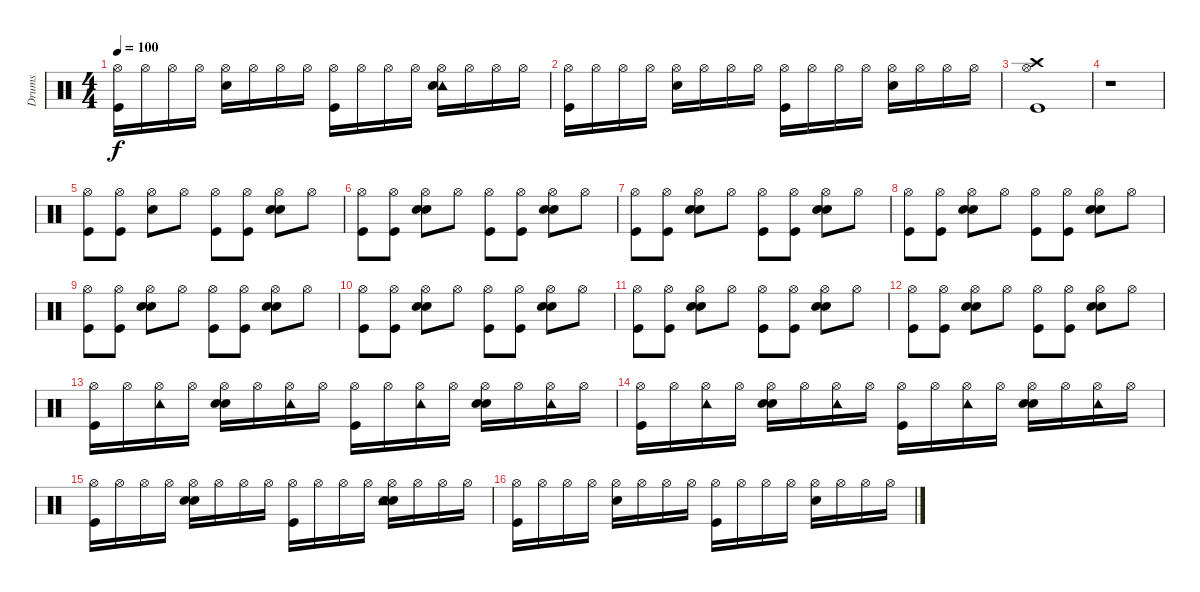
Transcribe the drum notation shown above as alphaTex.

\track ("Drums" "Drums") {instrument percussion}
\staff {score}
\articulation defaults
\ts (4 4)
\tempo 100
\clef neutral
\ks c
("Hi-Hat (open)" "Kick (hit)").16{dy f} "Hi-Hat (open)".16 "Hi-Hat (open)".16 "Hi-Hat (open)".16 ("Hi-Hat (open)" "Snare (hit) 2").16 "Hi-Hat (open)".16 "Hi-Hat (open)".16 "Hi-Hat (open)".16 ("Hi-Hat (open)" "Kick (hit)").16 "Hi-Hat (open)".16 "Hi-Hat (open)".16 "Hi-Hat (open)".16 ("Hi-Hat (open)" "Tambourine (hit)" "Snare (hit) 2").16 "Hi-Hat (open)".16 "Hi-Hat (open)".16 "Hi-Hat (open)".16 |
("Hi-Hat (open)" "Kick (hit)").16 "Hi-Hat (open)".16 "Hi-Hat (open)".16 "Hi-Hat (open)".16 ("Hi-Hat (open)" "Snare (hit) 2").16 "Hi-Hat (open)".16 "Hi-Hat (open)".16 "Hi-Hat (open)".16 ("Hi-Hat (open)" "Kick (hit)").16 "Hi-Hat (open)".16 "Hi-Hat (open)".16 "Hi-Hat (open)".16 ("Hi-Hat (open)" "Snare (hit) 2").16 "Hi-Hat (open)".16 "Hi-Hat (open)".16 "Hi-Hat (open)".16 |
("Hi-Hat (open)" "Crash high (hit)" "Kick (hit)").1 |
r.1 |
("Hi-Hat (open)" "Kick (hit)").8 ("Hi-Hat (open)" "Kick (hit)").8 ("Hi-Hat (open)" "Snare (hit) 2").8 "Hi-Hat (open)".8 ("Hi-Hat (open)" "Kick (hit)").8 ("Hi-Hat (open)" "Kick (hit)").8 ("Hi-Hat (open)" "Hand Clap (hit)" "Snare (hit) 2").8 "Hi-Hat (open)".8 |
("Hi-Hat (open)" "Kick (hit)").8 ("Hi-Hat (open)" "Kick (hit)").8 ("Hi-Hat (open)" "Hand Clap (hit)" "Snare (hit) 2").8 "Hi-Hat (open)".8 ("Hi-Hat (open)" "Kick (hit)").8 ("Hi-Hat (open)" "Kick (hit)").8 ("Hi-Hat (open)" "Hand Clap (hit)" "Snare (hit) 2").8 "Hi-Hat (open)".8 |
("Hi-Hat (open)" "Kick (hit)").8 ("Hi-Hat (open)" "Kick (hit)").8 ("Hi-Hat (open)" "Hand Clap (hit)" "Snare (hit) 2").8 "Hi-Hat (open)".8 ("Hi-Hat (open)" "Kick (hit)").8 ("Hi-Hat (open)" "Kick (hit)").8 ("Hi-Hat (open)" "Hand Clap (hit)" "Snare (hit) 2").8 "Hi-Hat (open)".8 |
("Hi-Hat (open)" "Kick (hit)").8 ("Hi-Hat (open)" "Kick (hit)").8 ("Hi-Hat (open)" "Hand Clap (hit)" "Snare (hit) 2").8 "Hi-Hat (open)".8 ("Hi-Hat (open)" "Kick (hit)").8 ("Hi-Hat (open)" "Kick (hit)").8 ("Hi-Hat (open)" "Hand Clap (hit)" "Snare (hit) 2").8 "Hi-Hat (open)".8 |
("Hi-Hat (open)" "Kick (hit)").8 ("Hi-Hat (open)" "Kick (hit)").8 ("Hi-Hat (open)" "Hand Clap (hit)" "Snare (hit) 2").8 "Hi-Hat (open)".8 ("Hi-Hat (open)" "Kick (hit)").8 ("Hi-Hat (open)" "Kick (hit)").8 ("Hi-Hat (open)" "Hand Clap (hit)" "Snare (hit) 2").8 "Hi-Hat (open)".8 |
("Hi-Hat (open)" "Kick (hit)").8 ("Hi-Hat (open)" "Kick (hit)").8 ("Hi-Hat (open)" "Hand Clap (hit)" "Snare (hit) 2").8 "Hi-Hat (open)".8 ("Hi-Hat (open)" "Kick (hit)").8 ("Hi-Hat (open)" "Kick (hit)").8 ("Hi-Hat (open)" "Hand Clap (hit)" "Snare (hit) 2").8 "Hi-Hat (open)".8 |
("Hi-Hat (open)" "Kick (hit)").8 ("Hi-Hat (open)" "Kick (hit)").8 ("Hi-Hat (open)" "Hand Clap (hit)" "Snare (hit) 2").8 "Hi-Hat (open)".8 ("Hi-Hat (open)" "Kick (hit)").8 ("Hi-Hat (open)" "Kick (hit)").8 ("Hi-Hat (open)" "Hand Clap (hit)" "Snare (hit) 2").8 "Hi-Hat (open)".8 |
("Hi-Hat (open)" "Kick (hit)").8 ("Hi-Hat (open)" "Kick (hit)").8 ("Hi-Hat (open)" "Hand Clap (hit)" "Snare (hit) 2").8 "Hi-Hat (open)".8 ("Hi-Hat (open)" "Kick (hit)").8 ("Hi-Hat (open)" "Kick (hit)").8 ("Hi-Hat (open)" "Hand Clap (hit)" "Snare (hit) 2").8 "Hi-Hat (open)".8 |
("Hi-Hat (open)" "Kick (hit)").16 "Hi-Hat (open)".16 ("Hi-Hat (open)" "Tambourine (hit)").16 "Hi-Hat (open)".16 ("Hi-Hat (open)" "Hand Clap (hit)" "Snare (hit) 2").16 "Hi-Hat (open)".16 ("Hi-Hat (open)" "Tambourine (hit)").16 "Hi-Hat (open)".16 ("Hi-Hat (open)" "Kick (hit)").16 "Hi-Hat (open)".16 ("Hi-Hat (open)" "Tambourine (hit)").16 "Hi-Hat (open)".16 ("Hi-Hat (open)" "Hand Clap (hit)" "Snare (hit) 2").16 "Hi-Hat (open)".16 ("Hi-Hat (open)" "Tambourine (hit)").16 "Hi-Hat (open)".16 |
("Hi-Hat (open)" "Kick (hit)").16 "Hi-Hat (open)".16 ("Hi-Hat (open)" "Tambourine (hit)").16 "Hi-Hat (open)".16 ("Hi-Hat (open)" "Hand Clap (hit)" "Snare (hit) 2").16 "Hi-Hat (open)".16 ("Hi-Hat (open)" "Tambourine (hit)").16 "Hi-Hat (open)".16 ("Hi-Hat (open)" "Kick (hit)").16 "Hi-Hat (open)".16 ("Hi-Hat (open)" "Tambourine (hit)").16 "Hi-Hat (open)".16 ("Hi-Hat (open)" "Hand Clap (hit)" "Snare (hit) 2").16 "Hi-Hat (open)".16 ("Hi-Hat (open)" "Tambourine (hit)").16 "Hi-Hat (open)".16 |
("Hi-Hat (open)" "Kick (hit)").16 "Hi-Hat (open)".16 "Hi-Hat (open)".16 "Hi-Hat (open)".16 ("Hi-Hat (open)" "Hand Clap (hit)" "Snare (hit) 2").16 "Hi-Hat (open)".16 "Hi-Hat (open)".16 "Hi-Hat (open)".16 ("Hi-Hat (open)" "Kick (hit)").16 "Hi-Hat (open)".16 "Hi-Hat (open)".16 "Hi-Hat (open)".16 ("Hi-Hat (open)" "Hand Clap (hit)" "Snare (hit) 2" "Tambourine (hit)").16 "Hi-Hat (open)".16 "Hi-Hat (open)".16 "Hi-Hat (open)".16 |
("Hi-Hat (open)" "Kick (hit)").16 "Hi-Hat (open)".16 "Hi-Hat (open)".16 "Hi-Hat (open)".16 ("Hi-Hat (open)" "Snare (hit) 2").16 "Hi-Hat (open)".16 "Hi-Hat (open)".16 "Hi-Hat (open)".16 ("Hi-Hat (open)" "Kick (hit)").16 "Hi-Hat (open)".16 "Hi-Hat (open)".16 "Hi-Hat (open)".16 ("Hi-Hat (open)" "Snare (hit) 2").16 "Hi-Hat (open)".16 "Hi-Hat (open)".16 "Hi-Hat (open)".16
